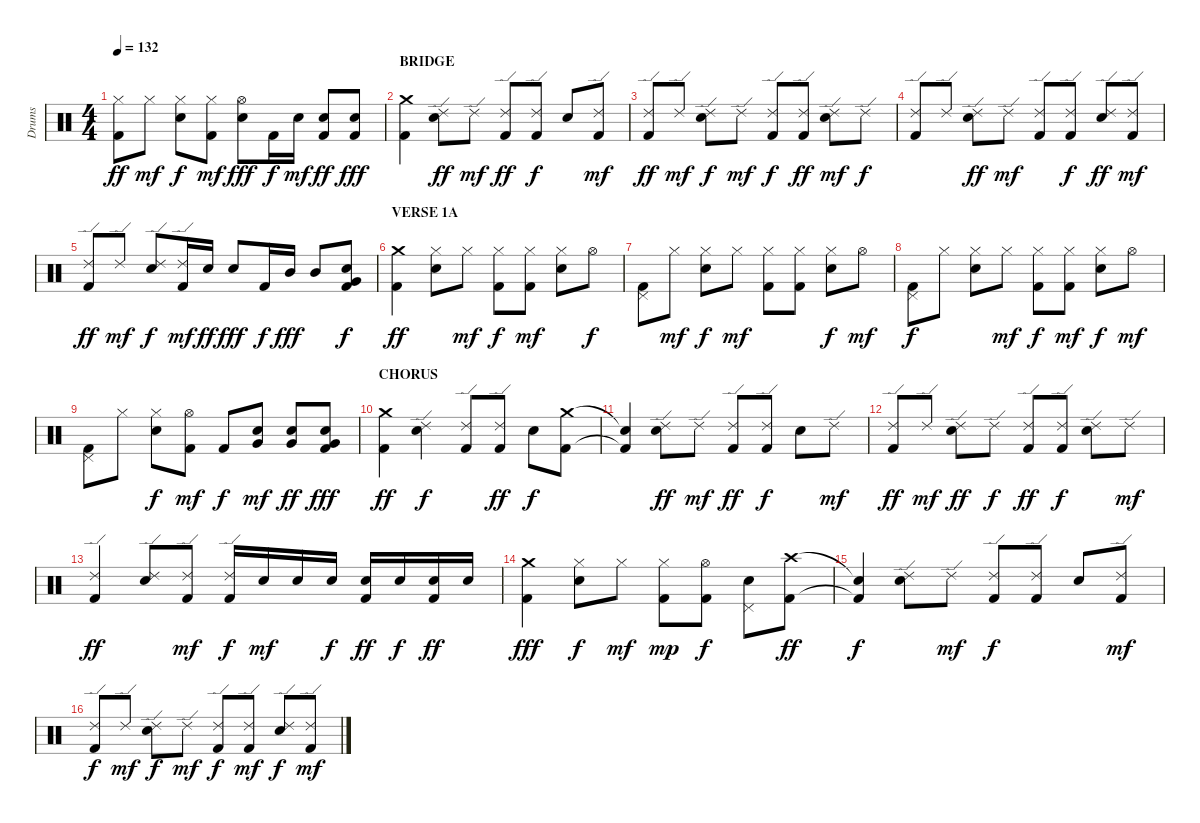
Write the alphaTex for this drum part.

\track ("Drums" "Drums") {instrument percussion}
\staff {score}
\articulation defaults
\ts (4 4)
\tempo 132
\clef neutral
\ks c
("Hi-Hat (closed)" "Kick (hit) 2").8{dy ff} "Hi-Hat (closed)".8{dy mf} ("Hi-Hat (closed)" "Electric Snare (hit)").8{dy f} ("Hi-Hat (closed)" "Kick (hit) 2").8{dy mf} ("Hi-Hat (open)" "Electric Snare (hit)").8{dy fff} "Kick (hit) 2".16{dy f} "Electric Snare (hit)".16{dy mf} ("Electric Snare (hit)" "Kick (hit) 2").8{dy ff} ("Electric Snare (hit)" "Kick (hit) 2").8{dy fff} |
\section ("" "BRIDGE")
("Crash medium (hit)" "Kick (hit) 2").4 ("Ride (edge) 2" "Electric Snare (hit)").8{dy ff} "Ride (edge) 2".8{dy mf} ("Ride (edge) 2" "Kick (hit) 2").8{dy ff} ("Ride (edge) 2" "Kick (hit) 2").8{dy f} "Electric Snare (hit)".8 ("Ride (edge) 2" "Kick (hit) 2").8{dy mf} |
("Ride (edge) 2" "Kick (hit) 2").8{dy ff} "Ride (edge) 2".8{dy mf} ("Ride (edge) 2" "Electric Snare (hit)").8{dy f} "Ride (edge) 2".8{dy mf} ("Ride (edge) 2" "Kick (hit) 2").8{dy f} ("Ride (edge) 2" "Kick (hit) 2").8{dy ff} ("Ride (edge) 2" "Electric Snare (hit)").8{dy mf} "Ride (edge) 2".8{dy f} |
("Ride (edge) 2" "Kick (hit) 2").8 "Ride (edge) 2".8 ("Ride (edge) 2" "Electric Snare (hit)").8{dy ff} "Ride (edge) 2".8{dy mf} ("Ride (edge) 2" "Kick (hit) 2").8 ("Ride (edge) 2" "Kick (hit) 2").8{dy f} ("Ride (edge) 2" "Electric Snare (hit)").8{dy ff} ("Ride (edge) 2" "Kick (hit) 2").8{dy mf} |
("Ride (edge) 2" "Kick (hit) 2").8{dy ff} "Ride (edge) 2".8{dy mf} ("Ride (edge) 2" "Electric Snare (hit)").8{dy f} ("Ride (edge) 2" "Kick (hit) 2").16{dy mf} "Electric Snare (hit)".16{dy ff} "Electric Snare (hit)".8{dy fff} "Kick (hit) 2".16{dy f} "Mid Tom (hit)".16{dy fff} "Mid Tom (hit)".8 ("Electric Snare (hit)" "Very Low Tom (hit)" "Kick (hit) 2").8{dy f} |
\section ("" "VERSE 1A")
("Crash medium (hit)" "Kick (hit) 2").4{dy ff} ("Hi-Hat (closed)" "Electric Snare (hit)").8 "Hi-Hat (closed)".8{dy mf} ("Hi-Hat (closed)" "Kick (hit) 2").8{dy f} ("Hi-Hat (closed)" "Kick (hit) 2").8{dy mf} ("Hi-Hat (closed)" "Electric Snare (hit)").8 "Hi-Hat (open)".8{dy f} |
("Pedal Hi-Hat (hit)" "Kick (hit) 2").8 "Hi-Hat (closed)".8{dy mf} ("Hi-Hat (closed)" "Electric Snare (hit)").8{dy f} "Hi-Hat (closed)".8{dy mf} ("Hi-Hat (closed)" "Kick (hit) 2").8 ("Hi-Hat (closed)" "Kick (hit) 2").8 ("Hi-Hat (closed)" "Electric Snare (hit)").8{dy f} "Hi-Hat (open)".8{dy mf} |
("Pedal Hi-Hat (hit)" "Kick (hit) 2").8{dy f} "Hi-Hat (closed)".8 ("Hi-Hat (closed)" "Electric Snare (hit)").8 "Hi-Hat (closed)".8{dy mf} ("Hi-Hat (closed)" "Kick (hit) 2").8{dy f} ("Hi-Hat (closed)" "Kick (hit) 2").8{dy mf} ("Hi-Hat (closed)" "Electric Snare (hit)").8{dy f} "Hi-Hat (open)".8{dy mf} |
("Pedal Hi-Hat (hit)" "Kick (hit) 2").8 "Hi-Hat (closed)".8 ("Hi-Hat (closed)" "Electric Snare (hit)").8{dy f} ("Hi-Hat (open)" "Kick (hit) 2").8{dy mf} "Kick (hit) 2".8{dy f} ("Electric Snare (hit)" "Very Low Tom (hit)").8{dy mf} ("Electric Snare (hit)" "Very Low Tom (hit)").8{dy ff} ("Electric Snare (hit)" "Very Low Tom (hit)" "Kick (hit) 2").8{dy fff} |
\section ("" "CHORUS")
("Crash medium (hit)" "Kick (hit) 2").4{dy ff} ("Ride (edge) 2" "Electric Snare (hit)").4{dy f} ("Ride (edge) 2" "Kick (hit) 2").8 ("Ride (edge) 2" "Kick (hit) 2").8{dy ff} "Electric Snare (hit)".8{dy f} ("Crash medium (hit)" "Kick (hit) 2").8 |
("Snare (hit)"{t} "Kick (hit) 2"{t}).4 ("Ride (edge) 2" "Electric Snare (hit)").8{dy ff} "Ride (edge) 2".8{dy mf} ("Ride (edge) 2" "Kick (hit) 2").8{dy ff} ("Ride (edge) 2" "Kick (hit) 2").8{dy f} "Electric Snare (hit)".8 "Ride (edge) 2".8{dy mf} |
("Ride (edge) 2" "Kick (hit) 2").8{dy ff} "Ride (edge) 2".8{dy mf} ("Ride (edge) 2" "Electric Snare (hit)").8{dy ff} "Ride (edge) 2".8{dy f} ("Ride (edge) 2" "Kick (hit) 2").8{dy ff} ("Ride (edge) 2" "Kick (hit) 2").8{dy f} ("Ride (edge) 2" "Electric Snare (hit)").8 "Ride (edge) 2".8{dy mf} |
("Ride (edge) 2" "Kick (hit) 2").4{dy ff} ("Ride (edge) 2" "Electric Snare (hit)").8 ("Ride (edge) 2" "Kick (hit) 2").8{dy mf} ("Ride (edge) 2" "Kick (hit) 2").16{dy f} "Electric Snare (hit)".16{dy mf} "Electric Snare (hit)".16 "Electric Snare (hit)".16{dy f} ("Electric Snare (hit)" "Kick (hit) 2").16{dy ff} "Electric Snare (hit)".16{dy f} ("Electric Snare (hit)" "Kick (hit) 2").16{dy ff} "Electric Snare (hit)".16 |
("Crash medium (hit)" "Kick (hit) 2").4{dy fff} ("Hi-Hat (closed)" "Electric Snare (hit)").8{dy f} "Hi-Hat (closed)".8{dy mf} ("Hi-Hat (closed)" "Kick (hit) 2").8{dy mp} ("Hi-Hat (open)" "Kick (hit) 2").8{dy f} ("Electric Snare (hit)" "Pedal Hi-Hat (hit)").8 ("Crash high (hit)" "Kick (hit) 2").8{dy ff} |
("Snare (hit)"{t} "Kick (hit) 2"{t}).4{dy f} ("Ride (edge) 2" "Electric Snare (hit)").8 "Ride (edge) 2".8{dy mf} ("Ride (edge) 2" "Kick (hit) 2").8{dy f} ("Ride (edge) 2" "Kick (hit) 2").8 "Electric Snare (hit)".8 ("Ride (edge) 2" "Kick (hit) 2").8{dy mf} |
("Ride (edge) 2" "Kick (hit) 2").8{dy f} "Ride (edge) 2".8{dy mf} ("Ride (edge) 2" "Electric Snare (hit)").8{dy f} "Ride (edge) 2".8{dy mf} ("Ride (edge) 2" "Kick (hit) 2").8{dy f} ("Ride (edge) 2" "Kick (hit) 2").8{dy mf} ("Ride (edge) 2" "Electric Snare (hit)").8{dy f} ("Ride (edge) 2" "Kick (hit) 2").8{dy mf}
